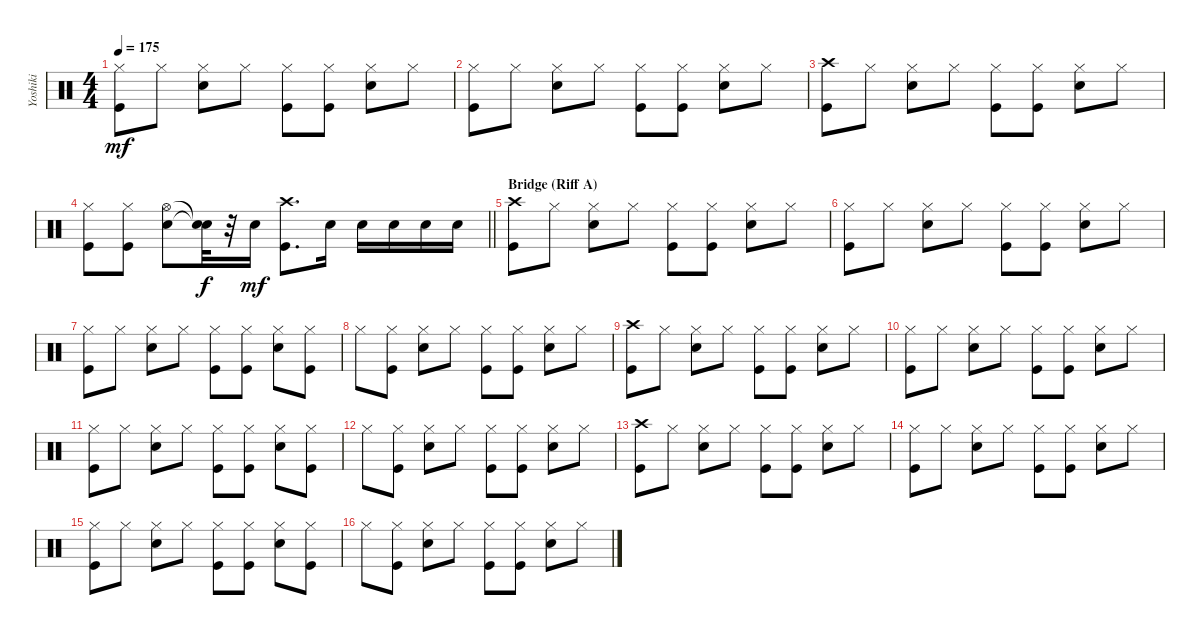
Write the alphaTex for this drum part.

\track ("Yoshiki" "Yoshiki") {instrument percussion}
\staff {score}
\articulation defaults
\ts (4 4)
\tempo 175
\clef neutral
\ks c
("Hi-Hat (closed)" "Kick (hit)").8{dy mf} "Hi-Hat (closed)".8 ("Snare (hit) 2" "Hi-Hat (closed)").8 "Hi-Hat (closed)".8 ("Hi-Hat (closed)" "Kick (hit)").8 ("Hi-Hat (closed)" "Kick (hit)").8 ("Snare (hit) 2" "Hi-Hat (closed)").8 "Hi-Hat (closed)".8 |
("Hi-Hat (closed)" "Kick (hit)").8 "Hi-Hat (closed)".8 ("Snare (hit) 2" "Hi-Hat (closed)").8 "Hi-Hat (closed)".8 ("Hi-Hat (closed)" "Kick (hit)").8 ("Hi-Hat (closed)" "Kick (hit)").8 ("Snare (hit) 2" "Hi-Hat (closed)").8 "Hi-Hat (closed)".8 |
("Crash high (hit)" "Kick (hit)").8 "Hi-Hat (closed)".8 ("Snare (hit) 2" "Hi-Hat (closed)").8 "Hi-Hat (closed)".8 ("Hi-Hat (closed)" "Kick (hit)").8 ("Hi-Hat (closed)" "Kick (hit)").8 ("Snare (hit) 2" "Hi-Hat (closed)").8 "Hi-Hat (closed)".8 |
\barLineRight lightlight
("Hi-Hat (closed)" "Kick (hit)").8 ("Hi-Hat (closed)" "Kick (hit)").8 ("Snare (hit) 2" "Hi-Hat (open)").8 ("Snare (hit)"{t} "Snare (hit)"{t}).32{dy f} r.32 "Snare (hit) 2".16{dy mf} ("Crash high (hit)" "Kick (hit)").8{d} "Snare (hit) 2".16 "Snare (hit) 2".16 "Snare (hit) 2".16 "Snare (hit) 2".16 "Snare (hit) 2".16 |
\section ("" "Bridge (Riff A)")
("Crash high (hit)" "Kick (hit)").8 "Hi-Hat (closed)".8 ("Snare (hit) 2" "Hi-Hat (closed)").8 "Hi-Hat (closed)".8 ("Hi-Hat (closed)" "Kick (hit)").8 ("Hi-Hat (closed)" "Kick (hit)").8 ("Snare (hit) 2" "Hi-Hat (closed)").8 "Hi-Hat (closed)".8 |
("Hi-Hat (closed)" "Kick (hit)").8 "Hi-Hat (closed)".8 ("Snare (hit) 2" "Hi-Hat (closed)").8 "Hi-Hat (closed)".8 ("Hi-Hat (closed)" "Kick (hit)").8 ("Hi-Hat (closed)" "Kick (hit)").8 ("Snare (hit) 2" "Hi-Hat (closed)").8 "Hi-Hat (closed)".8 |
("Hi-Hat (closed)" "Kick (hit)").8 "Hi-Hat (closed)".8 ("Snare (hit) 2" "Hi-Hat (closed)").8 "Hi-Hat (closed)".8 ("Hi-Hat (closed)" "Kick (hit)").8 ("Hi-Hat (closed)" "Kick (hit)").8 ("Snare (hit) 2" "Hi-Hat (closed)").8 ("Hi-Hat (closed)" "Kick (hit)").8 |
"Hi-Hat (closed)".8 ("Hi-Hat (closed)" "Kick (hit)").8 ("Snare (hit) 2" "Hi-Hat (closed)").8 "Hi-Hat (closed)".8 ("Kick (hit)" "Hi-Hat (closed)").8 ("Kick (hit)" "Hi-Hat (closed)").8 ("Snare (hit) 2" "Hi-Hat (closed)").8 "Hi-Hat (closed)".8 |
("Crash high (hit)" "Kick (hit)").8 "Hi-Hat (closed)".8 ("Snare (hit) 2" "Hi-Hat (closed)").8 "Hi-Hat (closed)".8 ("Hi-Hat (closed)" "Kick (hit)").8 ("Hi-Hat (closed)" "Kick (hit)").8 ("Snare (hit) 2" "Hi-Hat (closed)").8 "Hi-Hat (closed)".8 |
("Hi-Hat (closed)" "Kick (hit)").8 "Hi-Hat (closed)".8 ("Snare (hit) 2" "Hi-Hat (closed)").8 "Hi-Hat (closed)".8 ("Hi-Hat (closed)" "Kick (hit)").8 ("Hi-Hat (closed)" "Kick (hit)").8 ("Snare (hit) 2" "Hi-Hat (closed)").8 "Hi-Hat (closed)".8 |
("Hi-Hat (closed)" "Kick (hit)").8 "Hi-Hat (closed)".8 ("Snare (hit) 2" "Hi-Hat (closed)").8 "Hi-Hat (closed)".8 ("Hi-Hat (closed)" "Kick (hit)").8 ("Hi-Hat (closed)" "Kick (hit)").8 ("Snare (hit) 2" "Hi-Hat (closed)").8 ("Hi-Hat (closed)" "Kick (hit)").8 |
"Hi-Hat (closed)".8 ("Hi-Hat (closed)" "Kick (hit)").8 ("Snare (hit) 2" "Hi-Hat (closed)").8 "Hi-Hat (closed)".8 ("Kick (hit)" "Hi-Hat (closed)").8 ("Kick (hit)" "Hi-Hat (closed)").8 ("Snare (hit) 2" "Hi-Hat (closed)").8 "Hi-Hat (closed)".8 |
("Crash high (hit)" "Kick (hit)").8 "Hi-Hat (closed)".8 ("Snare (hit) 2" "Hi-Hat (closed)").8 "Hi-Hat (closed)".8 ("Hi-Hat (closed)" "Kick (hit)").8 ("Hi-Hat (closed)" "Kick (hit)").8 ("Snare (hit) 2" "Hi-Hat (closed)").8 "Hi-Hat (closed)".8 |
("Hi-Hat (closed)" "Kick (hit)").8 "Hi-Hat (closed)".8 ("Snare (hit) 2" "Hi-Hat (closed)").8 "Hi-Hat (closed)".8 ("Hi-Hat (closed)" "Kick (hit)").8 ("Hi-Hat (closed)" "Kick (hit)").8 ("Snare (hit) 2" "Hi-Hat (closed)").8 "Hi-Hat (closed)".8 |
("Hi-Hat (closed)" "Kick (hit)").8 "Hi-Hat (closed)".8 ("Snare (hit) 2" "Hi-Hat (closed)").8 "Hi-Hat (closed)".8 ("Hi-Hat (closed)" "Kick (hit)").8 ("Hi-Hat (closed)" "Kick (hit)").8 ("Snare (hit) 2" "Hi-Hat (closed)").8 ("Hi-Hat (closed)" "Kick (hit)").8 |
"Hi-Hat (closed)".8 ("Hi-Hat (closed)" "Kick (hit)").8 ("Snare (hit) 2" "Hi-Hat (closed)").8 "Hi-Hat (closed)".8 ("Kick (hit)" "Hi-Hat (closed)").8 ("Kick (hit)" "Hi-Hat (closed)").8 ("Snare (hit) 2" "Hi-Hat (closed)").8 "Hi-Hat (closed)".8
